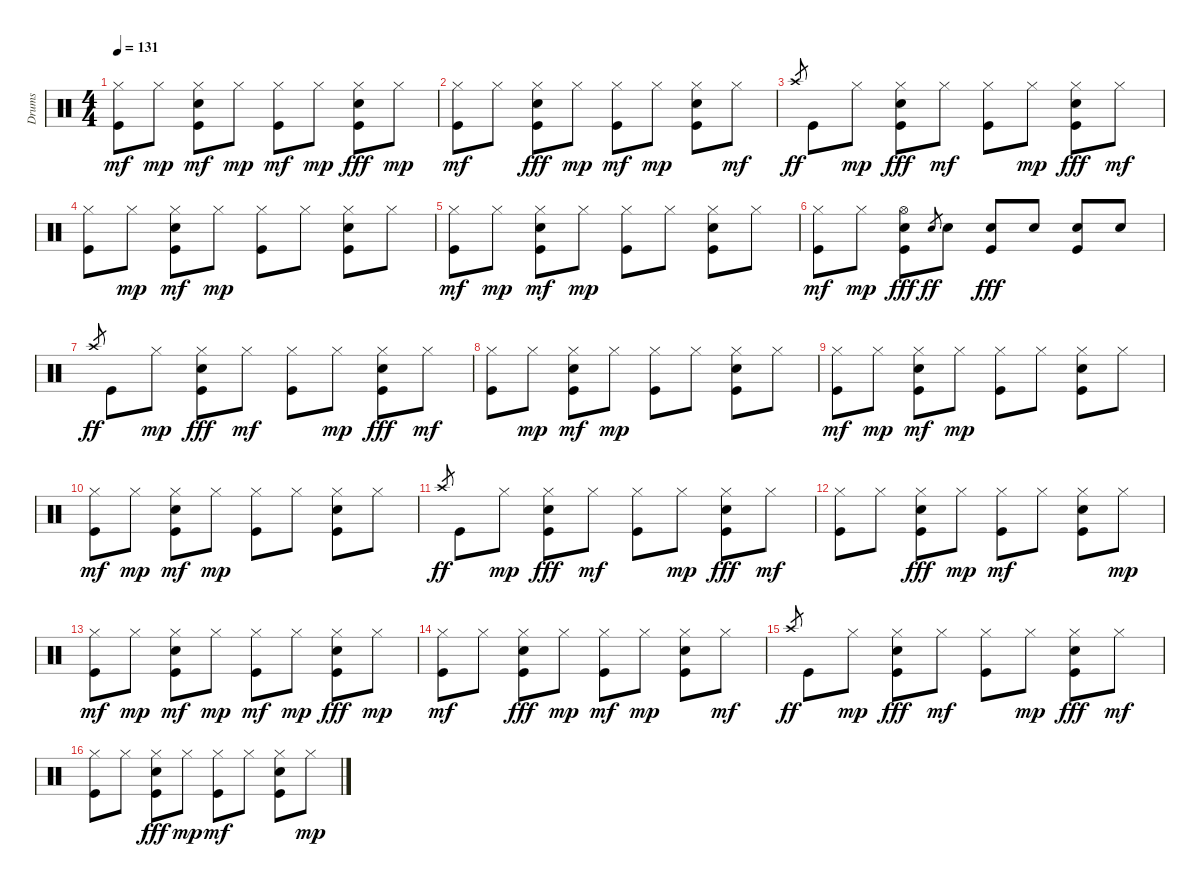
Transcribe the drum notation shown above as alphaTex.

\track ("Drums" "Drums") {instrument percussion}
\staff {score}
\articulation defaults
\ts (4 4)
\tempo 131
\clef neutral
\ks c
("Kick (hit)" "Hi-Hat (closed)").8{dy mf} "Hi-Hat (closed)".8{dy mp} ("Kick (hit)" "Snare (hit) 2" "Hi-Hat (closed)").8{dy mf} "Hi-Hat (closed)".8{dy mp} ("Kick (hit)" "Hi-Hat (closed)").8{dy mf} "Hi-Hat (closed)".8{dy mp} ("Kick (hit)" "Snare (hit) 2" "Hi-Hat (closed)").8{dy fff} "Hi-Hat (closed)".8{dy mp} |
("Kick (hit)" "Hi-Hat (closed)").8{dy mf} "Hi-Hat (closed)".8 ("Kick (hit)" "Snare (hit) 2" "Hi-Hat (closed)").8{dy fff} "Hi-Hat (closed)".8{dy mp} ("Kick (hit)" "Hi-Hat (closed)").8{dy mf} "Hi-Hat (closed)".8{dy mp} ("Kick (hit)" "Snare (hit) 2" "Hi-Hat (closed)").8 "Hi-Hat (closed)".8{dy mf} |
"Crash high (hit)".8{gr dy ff} "Kick (hit)".8 "Hi-Hat (closed)".8{dy mp} ("Kick (hit)" "Snare (hit) 2" "Hi-Hat (closed)").8{dy fff} "Hi-Hat (closed)".8{dy mf} ("Kick (hit)" "Hi-Hat (closed)").8 "Hi-Hat (closed)".8{dy mp} ("Kick (hit)" "Snare (hit) 2" "Hi-Hat (closed)").8{dy fff} "Hi-Hat (closed)".8{dy mf} |
("Kick (hit)" "Hi-Hat (closed)").8 "Hi-Hat (closed)".8{dy mp} ("Kick (hit)" "Snare (hit) 2" "Hi-Hat (closed)").8{dy mf} "Hi-Hat (closed)".8{dy mp} ("Kick (hit)" "Hi-Hat (closed)").8 "Hi-Hat (closed)".8 ("Kick (hit)" "Snare (hit) 2" "Hi-Hat (closed)").8 "Hi-Hat (closed)".8 |
("Kick (hit)" "Hi-Hat (closed)").8{dy mf} "Hi-Hat (closed)".8{dy mp} ("Kick (hit)" "Snare (hit) 2" "Hi-Hat (closed)").8{dy mf} "Hi-Hat (closed)".8{dy mp} ("Kick (hit)" "Hi-Hat (closed)").8 "Hi-Hat (closed)".8 ("Kick (hit)" "Snare (hit) 2" "Hi-Hat (closed)").8 "Hi-Hat (closed)".8 |
("Kick (hit)" "Hi-Hat (closed)").8{dy mf} "Hi-Hat (closed)".8{dy mp} ("Kick (hit)" "Snare (hit) 2" "Hi-Hat (open)").8{dy fff} "Snare (hit) 2".8{gr dy ff} "Snare (hit) 2".8 ("Kick (hit)" "Snare (hit) 2").8{dy fff} "Snare (hit) 2".8 ("Kick (hit)" "Snare (hit) 2").8 "Snare (hit) 2".8 |
"Crash high (hit)".8{gr dy ff} "Kick (hit)".8 "Hi-Hat (closed)".8{dy mp} ("Kick (hit)" "Snare (hit) 2" "Hi-Hat (closed)").8{dy fff} "Hi-Hat (closed)".8{dy mf} ("Kick (hit)" "Hi-Hat (closed)").8 "Hi-Hat (closed)".8{dy mp} ("Kick (hit)" "Snare (hit) 2" "Hi-Hat (closed)").8{dy fff} "Hi-Hat (closed)".8{dy mf} |
("Kick (hit)" "Hi-Hat (closed)").8 "Hi-Hat (closed)".8{dy mp} ("Kick (hit)" "Snare (hit) 2" "Hi-Hat (closed)").8{dy mf} "Hi-Hat (closed)".8{dy mp} ("Kick (hit)" "Hi-Hat (closed)").8 "Hi-Hat (closed)".8 ("Kick (hit)" "Snare (hit) 2" "Hi-Hat (closed)").8 "Hi-Hat (closed)".8 |
("Kick (hit)" "Hi-Hat (closed)").8{dy mf} "Hi-Hat (closed)".8{dy mp} ("Kick (hit)" "Snare (hit) 2" "Hi-Hat (closed)").8{dy mf} "Hi-Hat (closed)".8{dy mp} ("Kick (hit)" "Hi-Hat (closed)").8 "Hi-Hat (closed)".8 ("Kick (hit)" "Snare (hit) 2" "Hi-Hat (closed)").8 "Hi-Hat (closed)".8 |
("Kick (hit)" "Hi-Hat (closed)").8{dy mf} "Hi-Hat (closed)".8{dy mp} ("Kick (hit)" "Snare (hit) 2" "Hi-Hat (closed)").8{dy mf} "Hi-Hat (closed)".8{dy mp} ("Kick (hit)" "Hi-Hat (closed)").8 "Hi-Hat (closed)".8 ("Kick (hit)" "Snare (hit) 2" "Hi-Hat (closed)").8 "Hi-Hat (closed)".8 |
"Crash high (hit)".8{gr dy ff} "Kick (hit)".8 "Hi-Hat (closed)".8{dy mp} ("Kick (hit)" "Snare (hit) 2" "Hi-Hat (closed)").8{dy fff} "Hi-Hat (closed)".8{dy mf} ("Kick (hit)" "Hi-Hat (closed)").8 "Hi-Hat (closed)".8{dy mp} ("Kick (hit)" "Snare (hit) 2" "Hi-Hat (closed)").8{dy fff} "Hi-Hat (closed)".8{dy mf} |
("Kick (hit)" "Hi-Hat (closed)").8 "Hi-Hat (closed)".8 ("Kick (hit)" "Snare (hit) 2" "Hi-Hat (closed)").8{dy fff} "Hi-Hat (closed)".8{dy mp} ("Kick (hit)" "Hi-Hat (closed)").8{dy mf} "Hi-Hat (closed)".8 ("Kick (hit)" "Snare (hit) 2" "Hi-Hat (closed)").8 "Hi-Hat (closed)".8{dy mp} |
("Kick (hit)" "Hi-Hat (closed)").8{dy mf} "Hi-Hat (closed)".8{dy mp} ("Kick (hit)" "Snare (hit) 2" "Hi-Hat (closed)").8{dy mf} "Hi-Hat (closed)".8{dy mp} ("Kick (hit)" "Hi-Hat (closed)").8{dy mf} "Hi-Hat (closed)".8{dy mp} ("Kick (hit)" "Snare (hit) 2" "Hi-Hat (closed)").8{dy fff} "Hi-Hat (closed)".8{dy mp} |
("Kick (hit)" "Hi-Hat (closed)").8{dy mf} "Hi-Hat (closed)".8 ("Kick (hit)" "Snare (hit) 2" "Hi-Hat (closed)").8{dy fff} "Hi-Hat (closed)".8{dy mp} ("Kick (hit)" "Hi-Hat (closed)").8{dy mf} "Hi-Hat (closed)".8{dy mp} ("Kick (hit)" "Snare (hit) 2" "Hi-Hat (closed)").8 "Hi-Hat (closed)".8{dy mf} |
"Crash high (hit)".8{gr dy ff} "Kick (hit)".8 "Hi-Hat (closed)".8{dy mp} ("Kick (hit)" "Snare (hit) 2" "Hi-Hat (closed)").8{dy fff} "Hi-Hat (closed)".8{dy mf} ("Kick (hit)" "Hi-Hat (closed)").8 "Hi-Hat (closed)".8{dy mp} ("Kick (hit)" "Snare (hit) 2" "Hi-Hat (closed)").8{dy fff} "Hi-Hat (closed)".8{dy mf} |
("Kick (hit)" "Hi-Hat (closed)").8 "Hi-Hat (closed)".8 ("Kick (hit)" "Snare (hit) 2" "Hi-Hat (closed)").8{dy fff} "Hi-Hat (closed)".8{dy mp} ("Kick (hit)" "Hi-Hat (closed)").8{dy mf} "Hi-Hat (closed)".8 ("Kick (hit)" "Snare (hit) 2" "Hi-Hat (closed)").8 "Hi-Hat (closed)".8{dy mp}
